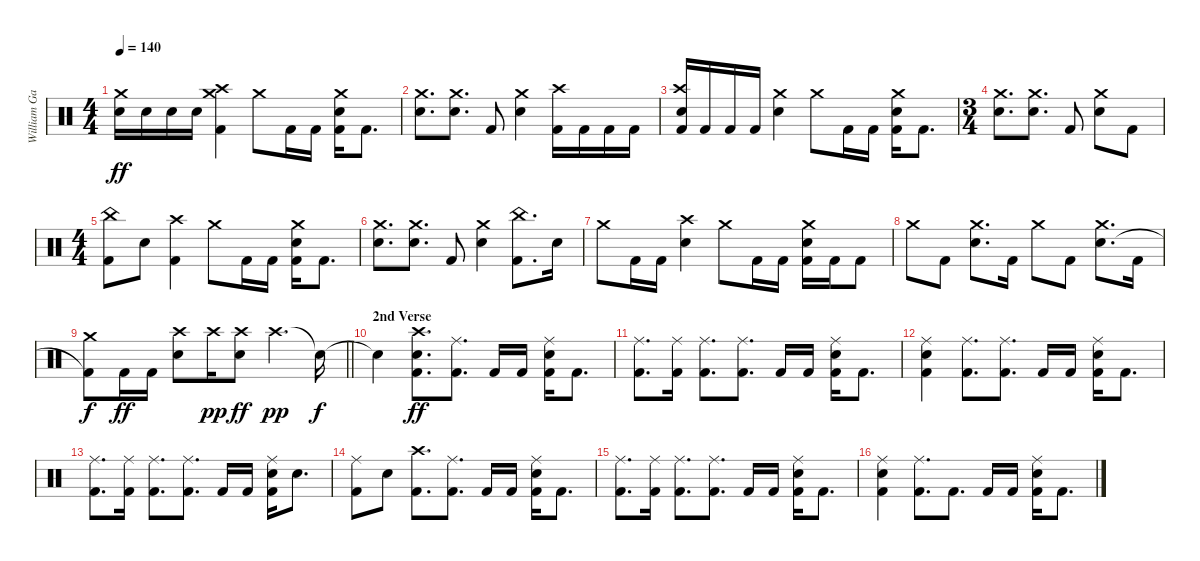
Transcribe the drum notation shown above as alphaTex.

\track ("William Gates (Drums)" "William Ga") {instrument percussion}
\staff {score}
\articulation defaults
\ts (4 4)
\tempo 140
\clef neutral
\ks c
("Crash medium (hit)" "Snare (hit) 2").16{dy ff} "Snare (hit) 2".16 "Snare (hit) 2".16 "Snare (hit) 2".16 ("Crash medium (hit)" "Crash high (hit)" "Kick (hit) 2").4 "Crash medium (hit)".8 "Kick (hit) 2".16 "Kick (hit) 2".16 ("Crash medium (hit)" "Snare (hit) 2" "Kick (hit) 2").16 "Kick (hit) 2".8{d} |
("Crash medium (hit)" "Snare (hit) 2").8{d} ("Crash medium (hit)" "Snare (hit) 2").8{d} "Kick (hit) 2".8 ("Crash medium (hit)" "Snare (hit) 2").4 ("Crash high (hit)" "Kick (hit) 2").16 "Kick (hit) 2".16 "Kick (hit) 2".16 "Kick (hit) 2".16 |
("Crash high (hit)" "Snare (hit) 2" "Kick (hit) 2").16 "Kick (hit) 2".16 "Kick (hit) 2".16 "Kick (hit) 2".16 ("Crash medium (hit)" "Snare (hit) 2").4 "Crash medium (hit)".8 "Kick (hit) 2".16 "Kick (hit) 2".16 ("Crash medium (hit)" "Snare (hit) 2" "Kick (hit) 2").16 "Kick (hit) 2".8{d} |
\ts (3 4)
("Crash medium (hit)" "Snare (hit) 2").8{d} ("Crash medium (hit)" "Snare (hit) 2").8{d} "Kick (hit) 2".8 ("Crash medium (hit)" "Snare (hit) 2").8 "Kick (hit) 2".8 |
\ts (4 4)
("China (hit)" "Kick (hit) 2").8 "Snare (hit) 2".8 ("Crash high (hit)" "Kick (hit) 2").4 "Crash medium (hit)".8 "Kick (hit) 2".16 "Kick (hit) 2".16 ("Crash medium (hit)" "Snare (hit) 2" "Kick (hit) 2").16 "Kick (hit) 2".8{d} |
("Crash medium (hit)" "Snare (hit) 2").8{d} ("Crash medium (hit)" "Snare (hit) 2").8{d} "Kick (hit) 2".8 ("Crash medium (hit)" "Snare (hit) 2").4 ("China (hit)" "Kick (hit) 2").8{d} "Snare (hit) 2".16 |
"Crash medium (hit)".8 "Kick (hit) 2".16 "Kick (hit) 2".16 ("Crash high (hit)" "Snare (hit) 2").4 "Crash medium (hit)".8 "Kick (hit) 2".16 "Kick (hit) 2".16 ("Crash medium (hit)" "Snare (hit) 2" "Kick (hit) 2").16 "Kick (hit) 2".16 "Kick (hit) 2".8 |
"Crash medium (hit)".8 "Kick (hit) 2".8 ("Crash medium (hit)" "Snare (hit) 2").8{d} "Kick (hit) 2".16 "Crash medium (hit)".8 "Kick (hit) 2".8 ("Crash medium (hit)" "Snare (hit) 2").8{d} "Kick (hit) 2".16 |
\barLineRight lightlight
("Crash medium (hit)" "Kick (hit) 2"{t}).8{dy f} "Kick (hit) 2".16{dy ff} "Kick (hit) 2".16 ("Crash high (hit)" "Snare (hit) 2").8 "Crash high (hit)".16{dy pp} ("Crash high (hit)" "Snare (hit) 2").8{dy ff} "Crash high (hit)".4{d dy pp} "Snare (hit)"{t}.16{dy f} |
\section ("" "2nd Verse")
"Snare (hit)"{t}.4 ("Crash high (hit)" "Snare (hit) 2" "Kick (hit) 2").8{d dy ff} ("Ride (middle)" "Kick (hit) 2").8{d} "Kick (hit) 2".16 "Kick (hit) 2".16 ("Ride (middle)" "Snare (hit) 2" "Kick (hit) 2").16 "Kick (hit) 2".8{d} |
("Ride (middle)" "Kick (hit) 2").8{d} ("Ride (middle)" "Kick (hit) 2").16 ("Ride (middle)" "Kick (hit) 2").8{d} ("Ride (middle)" "Kick (hit) 2").8{d} "Kick (hit) 2".16 "Kick (hit) 2".16 ("Ride (middle)" "Snare (hit) 2" "Kick (hit) 2").16 "Kick (hit) 2".8{d} |
("Ride (middle)" "Snare (hit) 2" "Kick (hit) 2").4 ("Ride (middle)" "Kick (hit) 2").8{d} ("Ride (middle)" "Kick (hit) 2").8{d} "Kick (hit) 2".16 "Kick (hit) 2".16 ("Ride (middle)" "Snare (hit) 2" "Kick (hit) 2").16 "Kick (hit) 2".8{d} |
("Ride (middle)" "Kick (hit) 2").8{d} ("Ride (middle)" "Kick (hit) 2").16 ("Ride (middle)" "Kick (hit) 2").8{d} ("Ride (middle)" "Kick (hit) 2").8{d} "Kick (hit) 2".16 "Kick (hit) 2".16 ("Ride (middle)" "Snare (hit) 2" "Kick (hit) 2").16 "Snare (hit) 2".8{d} |
("Ride (middle)" "Kick (hit) 2").8 "Snare (hit) 2".8 ("Crash high (hit)" "Kick (hit) 2").8{d} ("Ride (middle)" "Kick (hit) 2").8{d} "Kick (hit) 2".16 "Kick (hit) 2".16 ("Ride (middle)" "Snare (hit) 2" "Kick (hit) 2").16 "Kick (hit) 2".8{d} |
("Ride (middle)" "Kick (hit) 2").8{d} ("Ride (middle)" "Kick (hit) 2").16 ("Ride (middle)" "Kick (hit) 2").8{d} ("Ride (middle)" "Kick (hit) 2").8{d} "Kick (hit) 2".16 "Kick (hit) 2".16 ("Ride (middle)" "Snare (hit) 2" "Kick (hit) 2").16 "Kick (hit) 2".8{d} |
("Ride (middle)" "Snare (hit) 2" "Kick (hit) 2").4 ("Ride (middle)" "Kick (hit) 2").8{d} "Kick (hit) 2".8{d} "Kick (hit) 2".16 "Kick (hit) 2".16 ("Ride (middle)" "Snare (hit) 2" "Kick (hit) 2").16 "Kick (hit) 2".8{d}
